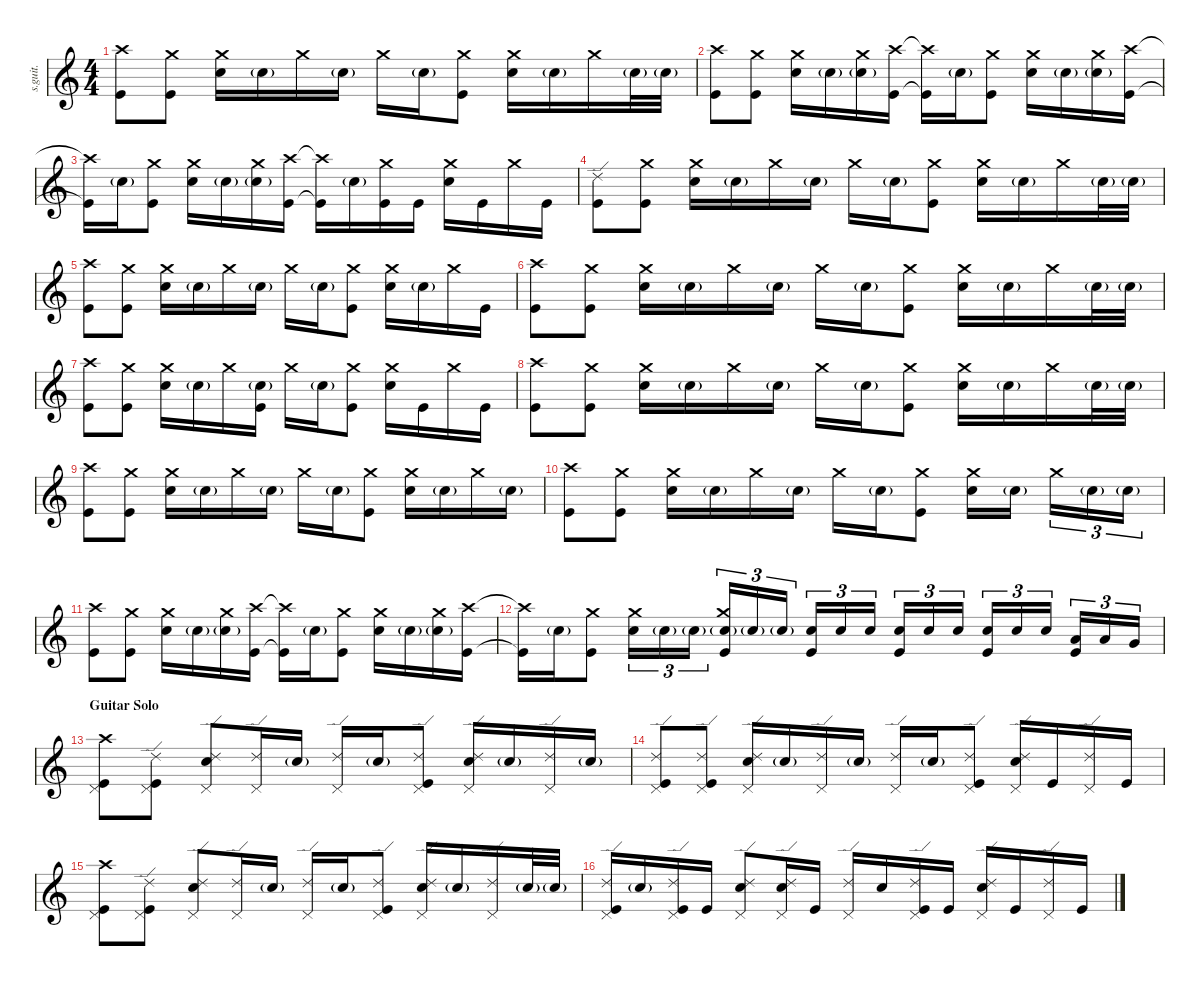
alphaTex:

\defaultSystemsLayout 4
\hideDynamics
\bracketExtendMode nobrackets
\track ("Chad Smith" "s.guit.") {instrument percussion}
\staff {score}
\articulation defaults
\ts (4 4)
\tempo (96 hide)
\clef g2
\ks c
("Crash high (hit)" "Kick (hit)").8{dy f} ("Crash medium (hit)" "Kick (hit)").8 ("Crash medium (hit)" "Snare (hit) 2").16 "Snare (hit) 2"{g}.16{dy pp} "Crash medium (hit)".16{dy f} "Snare (hit) 2"{g}.16{dy pp} "Crash medium (hit)".16{dy f} "Snare (hit) 2"{g}.16{dy pp} ("Crash medium (hit)" "Kick (hit)").8{dy f} ("Crash medium (hit)" "Snare (hit) 2").16 "Snare (hit) 2"{g}.16{dy pp} "Crash medium (hit)".16{dy f} "Snare (hit) 2"{g}.32{dy pp} "Snare (hit) 2"{g}.32 |
("Crash high (hit)" "Kick (hit)").8{dy f} ("Crash medium (hit)" "Kick (hit)").8 ("Crash medium (hit)" "Snare (hit) 2").16 "Snare (hit) 2"{g}.16{dy pp} ("Crash medium (hit)" "Snare (hit) 2"{g}).16{dy f} ("Crash high (hit)" "Kick (hit)").16 ("Crash high (hit)"{t} "Kick (hit)"{t}).16 "Snare (hit) 2"{g}.16{dy pp} ("Crash medium (hit)" "Kick (hit)").8{dy f} ("Crash medium (hit)" "Snare (hit) 2").16 "Snare (hit) 2"{g}.16{dy pp} ("Crash medium (hit)" "Snare (hit) 2"{g}).16{dy f} ("Crash high (hit)" "Kick (hit)").16 |
("Crash high (hit)"{t} "Kick (hit)"{t}).16 "Snare (hit) 2"{g}.16{dy pp} ("Crash medium (hit)" "Kick (hit)").8{dy f} ("Crash medium (hit)" "Snare (hit) 2").16 "Snare (hit) 2"{g}.16{dy pp} ("Crash medium (hit)" "Snare (hit) 2"{g}).16{dy f} ("Crash high (hit)" "Kick (hit)").16 ("Crash high (hit)"{t} "Kick (hit)"{t}).16 "Snare (hit) 2"{g}.16{dy pp} ("Crash medium (hit)" "Kick (hit)").16{dy f} "Kick (hit)".16 ("Crash medium (hit)" "Snare (hit) 2").16 "Kick (hit)".16 "Crash medium (hit)".16 "Kick (hit)".16 |
("Ride (edge) 2" "Kick (hit)").8 ("Crash medium (hit)" "Kick (hit)").8 ("Crash medium (hit)" "Snare (hit) 2").16 "Snare (hit) 2"{g}.16{dy pp} "Crash medium (hit)".16{dy f} "Snare (hit) 2"{g}.16{dy pp} "Crash medium (hit)".16{dy f} "Snare (hit) 2"{g}.16{dy pp} ("Crash medium (hit)" "Kick (hit)").8{dy f} ("Crash medium (hit)" "Snare (hit) 2").16 "Snare (hit) 2"{g}.16{dy pp} "Crash medium (hit)".16{dy f} "Snare (hit) 2"{g}.32{dy pp} "Snare (hit) 2"{g}.32 |
("Crash high (hit)" "Kick (hit)").8{dy f} ("Crash medium (hit)" "Kick (hit)").8 ("Crash medium (hit)" "Snare (hit) 2").16 "Snare (hit) 2"{g}.16{dy pp} "Crash medium (hit)".16{dy f} "Snare (hit) 2"{g}.16{dy pp} "Crash medium (hit)".16{dy f} "Snare (hit) 2"{g}.16{dy pp} ("Crash medium (hit)" "Kick (hit)").8{dy f} ("Crash medium (hit)" "Snare (hit) 2").16 "Snare (hit) 2"{g}.16{dy pp} "Crash medium (hit)".16{dy f} "Kick (hit)".16 |
("Crash high (hit)" "Kick (hit)").8 ("Crash medium (hit)" "Kick (hit)").8 ("Crash medium (hit)" "Snare (hit) 2").16 "Snare (hit) 2"{g}.16{dy pp} "Crash medium (hit)".16{dy f} "Snare (hit) 2"{g}.16{dy pp} "Crash medium (hit)".16{dy f} "Snare (hit) 2"{g}.16{dy pp} ("Crash medium (hit)" "Kick (hit)").8{dy f} ("Crash medium (hit)" "Snare (hit) 2").16 "Snare (hit) 2"{g}.16{dy pp} "Crash medium (hit)".16{dy f} "Snare (hit) 2"{g}.32{dy pp} "Snare (hit) 2"{g}.32 |
("Crash high (hit)" "Kick (hit)").8{dy f} ("Crash medium (hit)" "Kick (hit)").8 ("Crash medium (hit)" "Snare (hit) 2").16 "Snare (hit) 2"{g}.16{dy pp} "Crash medium (hit)".16{dy f} ("Snare (hit) 2"{g} "Kick (hit)").16 "Crash medium (hit)".16 "Snare (hit) 2"{g}.16{dy pp} ("Crash medium (hit)" "Kick (hit)").8{dy f} ("Crash medium (hit)" "Snare (hit) 2").16 "Kick (hit)".16 "Crash medium (hit)".16 "Kick (hit)".16 |
("Crash high (hit)" "Kick (hit)").8 ("Crash medium (hit)" "Kick (hit)").8 ("Crash medium (hit)" "Snare (hit) 2").16 "Snare (hit) 2"{g}.16{dy pp} "Crash medium (hit)".16{dy f} "Snare (hit) 2"{g}.16{dy pp} "Crash medium (hit)".16{dy f} "Snare (hit) 2"{g}.16{dy pp} ("Crash medium (hit)" "Kick (hit)").8{dy f} ("Crash medium (hit)" "Snare (hit) 2").16 "Snare (hit) 2"{g}.16{dy pp} "Crash medium (hit)".16{dy f} "Snare (hit) 2"{g}.32{dy pp} "Snare (hit) 2"{g}.32 |
("Crash high (hit)" "Kick (hit)").8{dy f} ("Crash medium (hit)" "Kick (hit)").8 ("Crash medium (hit)" "Snare (hit) 2").16 "Snare (hit) 2"{g}.16{dy pp} "Crash medium (hit)".16{dy f} "Snare (hit) 2"{g}.16{dy pp} "Crash medium (hit)".16{dy f} "Snare (hit) 2"{g}.16{dy pp} ("Crash medium (hit)" "Kick (hit)").8{dy f} ("Crash medium (hit)" "Snare (hit) 2").16 "Snare (hit) 2"{g}.16{dy pp} "Crash medium (hit)".16{dy f} "Snare (hit) 2"{g}.16{dy pp} |
("Crash high (hit)" "Kick (hit)").8{dy f} ("Crash medium (hit)" "Kick (hit)").8 ("Crash medium (hit)" "Snare (hit) 2").16 "Snare (hit) 2"{g}.16{dy pp} "Crash medium (hit)".16{dy f} "Snare (hit) 2"{g}.16{dy pp} "Crash medium (hit)".16{dy f} "Snare (hit) 2"{g}.16{dy pp} ("Crash medium (hit)" "Kick (hit)").8{dy f} ("Crash medium (hit)" "Snare (hit) 2").16 "Snare (hit) 2"{g}.16{dy pp} "Crash medium (hit)".16{tu (3 2) dy f} "Snare (hit) 2"{g}.16{tu (3 2) dy pp} "Snare (hit) 2"{g}.16{tu (3 2)} |
("Crash high (hit)" "Kick (hit)").8{dy f} ("Crash medium (hit)" "Kick (hit)").8 ("Crash medium (hit)" "Snare (hit) 2").16 "Snare (hit) 2"{g}.16{dy pp} ("Crash medium (hit)" "Snare (hit) 2"{g}).16{dy f} ("Crash high (hit)" "Kick (hit)").16 ("Crash high (hit)"{t} "Kick (hit)"{t}).16 "Snare (hit) 2"{g}.16{dy pp} ("Crash medium (hit)" "Kick (hit)").8{dy f} ("Crash medium (hit)" "Snare (hit) 2").16 "Snare (hit) 2"{g}.16{dy pp} ("Crash medium (hit)" "Snare (hit) 2"{g}).16{dy f} ("Crash high (hit)" "Kick (hit)").16 |
("Crash high (hit)"{t} "Kick (hit)"{t}).16 "Snare (hit) 2"{g}.16{dy pp} ("Crash medium (hit)" "Kick (hit)").8{dy f} ("Crash medium (hit)" "Snare (hit) 2").16{tu (3 2)} "Snare (hit) 2"{g}.16{tu (3 2) dy pp} "Snare (hit) 2"{g}.16{tu (3 2)} ("Crash medium (hit)" "Snare (hit) 2"{g} "Kick (hit)").16{tu (3 2) dy f} "Snare (hit) 2"{g}.16{tu (3 2) dy pp} "Snare (hit) 2"{g}.16{tu (3 2)} ("Snare (hit) 2" "Kick (hit)").16{tu (3 2) dy f} "Snare (hit) 2".16{tu (3 2)} "Snare (hit) 2".16{tu (3 2)} ("Snare (hit) 2" "Kick (hit)").16{tu (3 2)} "Snare (hit) 2".16{tu (3 2)} "Snare (hit) 2".16{tu (3 2)} ("Snare (hit) 2" "Kick (hit)").16{tu (3 2)} "Snare (hit) 2".16{tu (3 2)} "Snare (hit) 2".16{tu (3 2)} ("Low Tom (hit)" "Kick (hit)").16{tu (3 2)} "Low Tom (hit)".16{tu (3 2)} "Very Low Tom (hit)".16{tu (3 2)} |
\section ("" "Guitar Solo")
("Crash high (hit)" "Kick (hit)" "Pedal Hi-Hat (hit)").8 ("Ride (edge) 2" "Kick (hit)" "Pedal Hi-Hat (hit)").8 ("Ride (edge) 2" "Snare (hit) 2" "Pedal Hi-Hat (hit)").8 ("Ride (edge) 2" "Pedal Hi-Hat (hit)").16 "Snare (hit) 2"{g}.16{dy pp} ("Ride (edge) 2" "Pedal Hi-Hat (hit)").16{dy f} "Snare (hit) 2"{g}.16{dy pp} ("Ride (edge) 2" "Kick (hit)" "Pedal Hi-Hat (hit)").8{dy f} ("Ride (edge) 2" "Snare (hit) 2" "Pedal Hi-Hat (hit)").16 "Snare (hit) 2"{g}.16{dy pp} ("Ride (edge) 2" "Pedal Hi-Hat (hit)").16{dy f} "Snare (hit) 2"{g}.16{dy pp} |
("Ride (edge) 2" "Kick (hit)" "Pedal Hi-Hat (hit)").8{dy f} ("Ride (edge) 2" "Kick (hit)" "Pedal Hi-Hat (hit)").8 ("Ride (edge) 2" "Snare (hit) 2" "Pedal Hi-Hat (hit)").16 "Snare (hit) 2"{g}.16{dy pp} ("Ride (edge) 2" "Pedal Hi-Hat (hit)").16{dy f} "Snare (hit) 2"{g}.16{dy pp} ("Ride (edge) 2" "Pedal Hi-Hat (hit)").16{dy f} "Snare (hit) 2"{g}.16{dy pp} ("Ride (edge) 2" "Kick (hit)" "Pedal Hi-Hat (hit)").8{dy f} ("Ride (edge) 2" "Snare (hit) 2" "Pedal Hi-Hat (hit)").16 "Kick (hit)".16 ("Ride (edge) 2" "Pedal Hi-Hat (hit)").16 "Kick (hit)".16 |
("Crash high (hit)" "Kick (hit)" "Pedal Hi-Hat (hit)").8 ("Ride (edge) 2" "Kick (hit)" "Pedal Hi-Hat (hit)").8 ("Ride (edge) 2" "Snare (hit) 2" "Pedal Hi-Hat (hit)").8 ("Ride (edge) 2" "Pedal Hi-Hat (hit)").16 "Snare (hit) 2"{g}.16{dy pp} ("Ride (edge) 2" "Pedal Hi-Hat (hit)").16{dy f} "Snare (hit) 2"{g}.16{dy pp} ("Ride (edge) 2" "Kick (hit)" "Pedal Hi-Hat (hit)").8{dy f} ("Ride (edge) 2" "Snare (hit) 2" "Pedal Hi-Hat (hit)").16 "Snare (hit) 2"{g}.16{dy pp} ("Ride (edge) 2" "Pedal Hi-Hat (hit)").16{dy f} "Snare (hit) 2"{g}.32{dy pp} "Snare (hit) 2"{g}.32 |
("Ride (edge) 2" "Kick (hit)" "Pedal Hi-Hat (hit)").16{dy f} "Snare (hit) 2"{g}.16{dy pp} ("Ride (edge) 2" "Kick (hit)" "Pedal Hi-Hat (hit)").16{dy f} "Kick (hit)".16 ("Ride (edge) 2" "Snare (hit) 2" "Pedal Hi-Hat (hit)").8 ("Ride (edge) 2" "Snare (hit) 2" "Pedal Hi-Hat (hit)").16 "Kick (hit)".16 ("Ride (edge) 2" "Pedal Hi-Hat (hit)").16 "Snare (hit) 2".16 ("Ride (edge) 2" "Kick (hit)" "Pedal Hi-Hat (hit)").16 "Kick (hit)".16 ("Ride (edge) 2" "Snare (hit) 2" "Pedal Hi-Hat (hit)").16 "Kick (hit)".16 ("Ride (edge) 2" "Pedal Hi-Hat (hit)").16 "Kick (hit)".16
